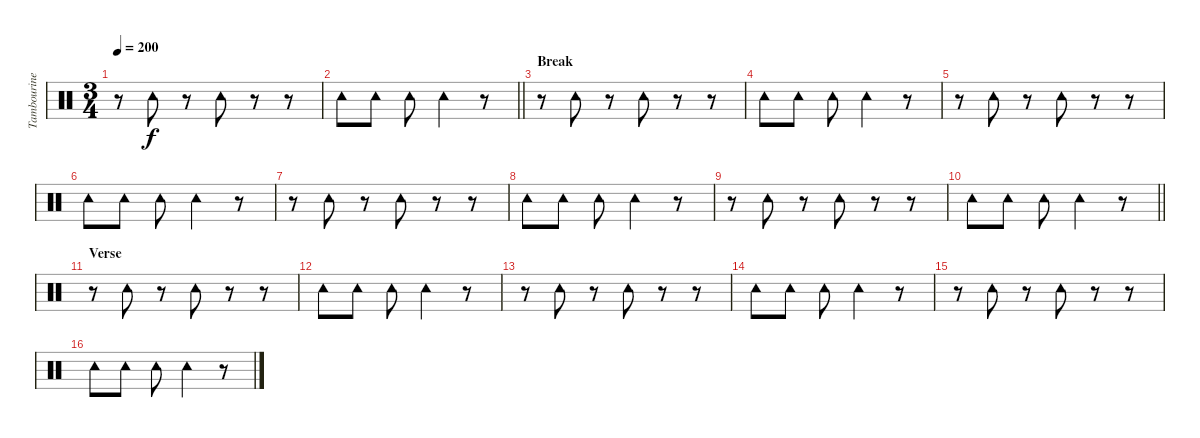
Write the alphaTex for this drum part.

\track ("Tambourine" "Tambourine") {instrument percussion}
\staff {score}
\articulation defaults
\ts (3 4)
\tempo 200
\clef neutral
\ks c
r.8{dy f} "Tambourine (hit)".8 r.8 "Tambourine (hit)".8 r.8 r.8 |
\barLineRight lightlight "Tambourine (hit)".8 "Tambourine (hit)".8 "Tambourine (hit)".8 "Tambourine (hit)".4
r.8 |
\section ("" "Break")
r.8 "Tambourine (hit)".8 r.8 "Tambourine (hit)".8 r.8 r.8 |
"Tambourine (hit)".8 "Tambourine (hit)".8 "Tambourine (hit)".8 "Tambourine (hit)".4 r.8 |
r.8 "Tambourine (hit)".8 r.8 "Tambourine (hit)".8 r.8 r.8 |
"Tambourine (hit)".8 "Tambourine (hit)".8 "Tambourine (hit)".8 "Tambourine (hit)".4 r.8 |
r.8 "Tambourine (hit)".8 r.8 "Tambourine (hit)".8 r.8 r.8 |
"Tambourine (hit)".8 "Tambourine (hit)".8 "Tambourine (hit)".8 "Tambourine (hit)".4 r.8 |
r.8 "Tambourine (hit)".8 r.8 "Tambourine (hit)".8 r.8 r.8 |
\barLineRight lightlight "Tambourine (hit)".8 "Tambourine (hit)".8 "Tambourine (hit)".8 "Tambourine (hit)".4
r.8 |
\section ("" "Verse")
r.8 "Tambourine (hit)".8 r.8 "Tambourine (hit)".8 r.8 r.8 |
"Tambourine (hit)".8 "Tambourine (hit)".8 "Tambourine (hit)".8 "Tambourine (hit)".4 r.8 |
r.8 "Tambourine (hit)".8 r.8 "Tambourine (hit)".8 r.8 r.8 |
"Tambourine (hit)".8 "Tambourine (hit)".8 "Tambourine (hit)".8 "Tambourine (hit)".4 r.8 |
r.8 "Tambourine (hit)".8 r.8 "Tambourine (hit)".8 r.8 r.8 |
"Tambourine (hit)".8 "Tambourine (hit)".8 "Tambourine (hit)".8 "Tambourine (hit)".4 r.8
